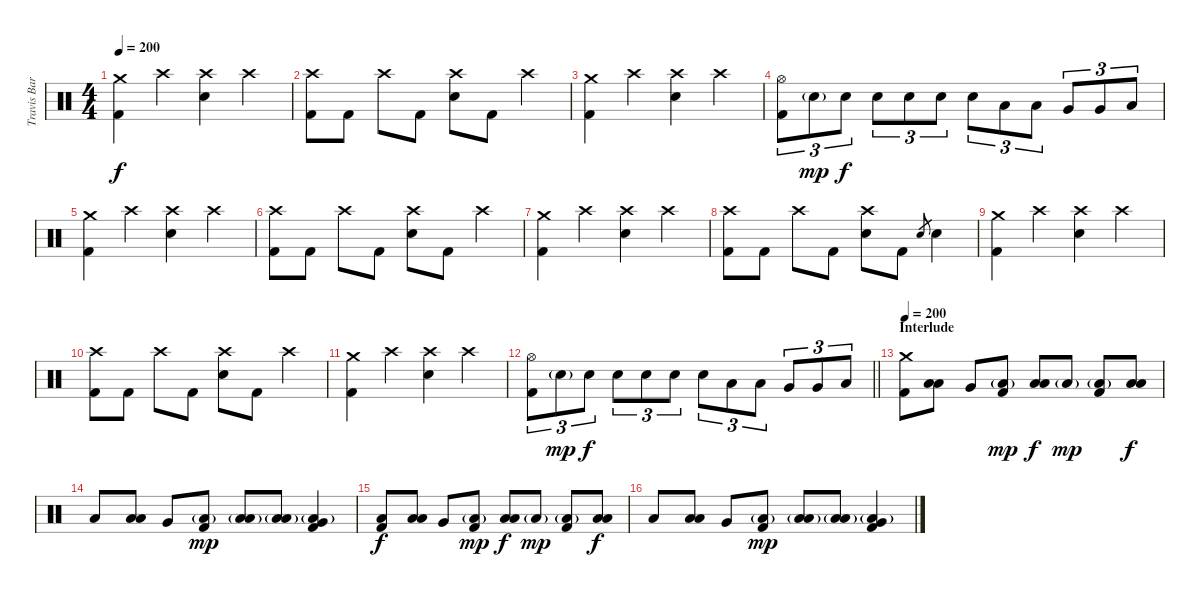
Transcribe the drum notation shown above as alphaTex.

\track ("Travis Barker - Drums" "Travis Bar") {instrument percussion}
\staff {score}
\articulation defaults
\ts (4 4)
\tempo 200
\clef neutral
\ks c
("Crash medium (hit)" "Kick (hit) 2").4{dy f} "Crash high (hit)".4 ("Crash high (hit)" "Electric Snare (hit)").4 "Crash high (hit)".4 |
("Crash high (hit)" "Kick (hit) 2").8 "Kick (hit) 2".8 "Crash high (hit)".8 "Kick (hit) 2".8 ("Crash high (hit)" "Electric Snare (hit)").8 "Kick (hit) 2".8 "Crash high (hit)".4 |
("Crash medium (hit)" "Kick (hit) 2").4 "Crash high (hit)".4 ("Crash high (hit)" "Electric Snare (hit)").4 "Crash high (hit)".4 |
("Hi-Hat (open)" "Kick (hit) 2").8{tu (3 2)} "Electric Snare (hit)"{g}.8{tu (3 2) dy mp} "Electric Snare (hit)".8{tu (3 2) dy f} "Electric Snare (hit)".8{tu (3 2)} "Electric Snare (hit)".8{tu (3 2)} "Electric Snare (hit)".8{tu (3 2)} "Electric Snare (hit)".8{tu (3 2)} "Low Tom (hit)".8{tu (3 2)} "Low Tom (hit)".8{tu (3 2)} "Very Low Tom (hit)".8{tu (3 2)} "Very Low Tom (hit)".8{tu (3 2)} "Low Floor Tom (hit)".8{tu (3 2)} |
("Crash medium (hit)" "Kick (hit) 2").4 "Crash high (hit)".4 ("Crash high (hit)" "Electric Snare (hit)").4 "Crash high (hit)".4 |
("Crash high (hit)" "Kick (hit) 2").8 "Kick (hit) 2".8 "Crash high (hit)".8 "Kick (hit) 2".8 ("Crash high (hit)" "Electric Snare (hit)").8 "Kick (hit) 2".8 "Crash high (hit)".4 |
("Crash medium (hit)" "Kick (hit) 2").4 "Crash high (hit)".4 ("Crash high (hit)" "Electric Snare (hit)").4 "Crash high (hit)".4 |
("Crash high (hit)" "Kick (hit) 2").8 "Kick (hit) 2".8 "Crash high (hit)".8 "Kick (hit) 2".8 ("Crash high (hit)" "Electric Snare (hit)").8 "Kick (hit) 2".8 "Electric Snare (hit)".8{gr} "Electric Snare (hit)".4 |
("Crash medium (hit)" "Kick (hit) 2").4 "Crash high (hit)".4 ("Crash high (hit)" "Electric Snare (hit)").4 "Crash high (hit)".4 |
("Crash high (hit)" "Kick (hit) 2").8 "Kick (hit) 2".8 "Crash high (hit)".8 "Kick (hit) 2".8 ("Crash high (hit)" "Electric Snare (hit)").8 "Kick (hit) 2".8 "Crash high (hit)".4 |
("Crash medium (hit)" "Kick (hit) 2").4 "Crash high (hit)".4 ("Crash high (hit)" "Electric Snare (hit)").4 "Crash high (hit)".4 |
\barLineRight lightlight
("Hi-Hat (open)" "Kick (hit) 2").8{tu (3 2)} "Electric Snare (hit)"{g}.8{tu (3 2) dy mp} "Electric Snare (hit)".8{tu (3 2) dy f} "Electric Snare (hit)".8{tu (3 2)} "Electric Snare (hit)".8{tu (3 2)} "Electric Snare (hit)".8{tu (3 2)} "Electric Snare (hit)".8{tu (3 2)} "Low Tom (hit)".8{tu (3 2)} "Low Tom (hit)".8{tu (3 2)} "Very Low Tom (hit)".8{tu (3 2)} "Very Low Tom (hit)".8{tu (3 2)} "Low Floor Tom (hit)".8{tu (3 2)} |
\section ("" "Interlude")
\tempo 200
("Crash medium (hit)" "Kick (hit) 2").8 ("Low Tom (hit)" "Low Floor Tom (hit)").8 "Very Low Tom (hit)".8 ("Low Floor Tom (hit)"{g} "Kick (hit) 2").8{dy mp} ("Low Tom (hit)" "Low Floor Tom (hit)").8{dy f} "Low Floor Tom (hit)"{g}.8{dy mp} ("Low Floor Tom (hit)"{g} "Kick (hit) 2").8 ("Low Tom (hit)" "Low Floor Tom (hit)").8{dy f} |
"Low Floor Tom (hit)".8 ("Low Tom (hit)" "Low Floor Tom (hit)").8 "Very Low Tom (hit)".8 ("Low Floor Tom (hit)"{g} "Kick (hit) 2").8{dy mp} ("Low Tom (hit)"{g} "Low Floor Tom (hit)").8 ("Low Tom (hit)" "Low Floor Tom (hit)"{g}).8 ("Very Low Tom (hit)" "Low Floor Tom (hit)"{g} "Kick (hit) 2").4 |
("Low Floor Tom (hit)" "Kick (hit) 2").8{dy f} ("Low Tom (hit)" "Low Floor Tom (hit)").8 "Very Low Tom (hit)".8 ("Low Floor Tom (hit)"{g} "Kick (hit) 2").8{dy mp} ("Low Tom (hit)" "Low Floor Tom (hit)").8{dy f} "Low Floor Tom (hit)"{g}.8{dy mp} ("Low Floor Tom (hit)"{g} "Kick (hit) 2").8 ("Low Tom (hit)" "Low Floor Tom (hit)").8{dy f} |
"Low Floor Tom (hit)".8 ("Low Tom (hit)" "Low Floor Tom (hit)").8 "Very Low Tom (hit)".8 ("Low Floor Tom (hit)"{g} "Kick (hit) 2").8{dy mp} ("Low Tom (hit)"{g} "Low Floor Tom (hit)").8 ("Low Tom (hit)" "Low Floor Tom (hit)"{g}).8 ("Very Low Tom (hit)" "Low Floor Tom (hit)"{g} "Kick (hit) 2").4
